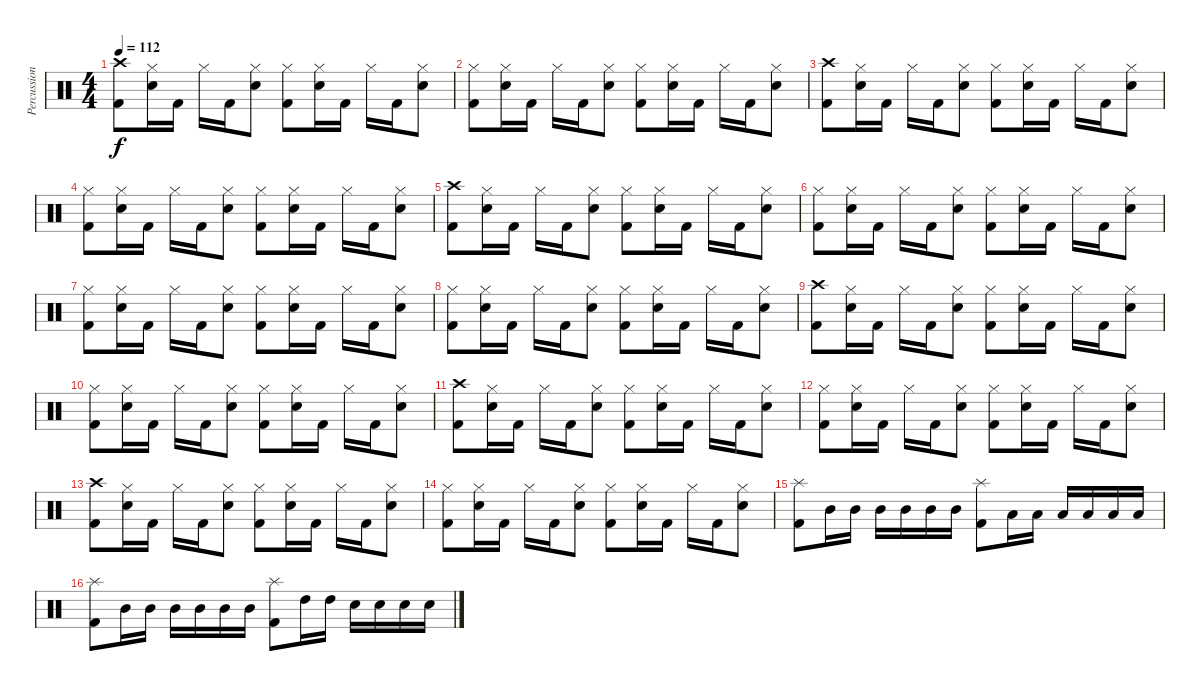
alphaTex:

\track ("Percussion" "Percussion") {instrument percussion}
\staff {score}
\articulation defaults
\ts (4 4)
\tempo 112
\clef neutral
\ks c
("Crash high (hit)" "Kick (hit) 2").8{dy f} ("Hi-Hat (closed)" "Snare (hit) 2").16 "Kick (hit) 2".16 "Hi-Hat (closed)".16 "Kick (hit) 2".16 ("Hi-Hat (closed)" "Snare (hit) 2").8 ("Hi-Hat (closed)" "Kick (hit) 2").8 ("Hi-Hat (closed)" "Snare (hit) 2").16 "Kick (hit) 2".16 "Hi-Hat (closed)".16 "Kick (hit) 2".16 ("Hi-Hat (closed)" "Snare (hit) 2").8 |
("Hi-Hat (closed)" "Kick (hit) 2").8 ("Hi-Hat (closed)" "Snare (hit) 2").16 "Kick (hit) 2".16 "Hi-Hat (closed)".16 "Kick (hit) 2".16 ("Hi-Hat (closed)" "Snare (hit) 2").8 ("Hi-Hat (closed)" "Kick (hit) 2").8 ("Hi-Hat (closed)" "Snare (hit) 2").16 "Kick (hit) 2".16 "Hi-Hat (closed)".16 "Kick (hit) 2".16 ("Hi-Hat (closed)" "Snare (hit) 2").8 |
("Crash high (hit)" "Kick (hit) 2").8 ("Hi-Hat (closed)" "Snare (hit) 2").16 "Kick (hit) 2".16 "Hi-Hat (closed)".16 "Kick (hit) 2".16 ("Hi-Hat (closed)" "Snare (hit) 2").8 ("Hi-Hat (closed)" "Kick (hit) 2").8 ("Hi-Hat (closed)" "Snare (hit) 2").16 "Kick (hit) 2".16 "Hi-Hat (closed)".16 "Kick (hit) 2".16 ("Hi-Hat (closed)" "Snare (hit) 2").8 |
("Hi-Hat (closed)" "Kick (hit) 2").8 ("Hi-Hat (closed)" "Snare (hit) 2").16 "Kick (hit) 2".16 "Hi-Hat (closed)".16 "Kick (hit) 2".16 ("Hi-Hat (closed)" "Snare (hit) 2").8 ("Hi-Hat (closed)" "Kick (hit) 2").8 ("Hi-Hat (closed)" "Snare (hit) 2").16 "Kick (hit) 2".16 "Hi-Hat (closed)".16 "Kick (hit) 2".16 ("Hi-Hat (closed)" "Snare (hit) 2").8 |
("Crash high (hit)" "Kick (hit) 2").8 ("Hi-Hat (closed)" "Snare (hit) 2").16 "Kick (hit) 2".16 "Hi-Hat (closed)".16 "Kick (hit) 2".16 ("Hi-Hat (closed)" "Snare (hit) 2").8 ("Hi-Hat (closed)" "Kick (hit) 2").8 ("Hi-Hat (closed)" "Snare (hit) 2").16 "Kick (hit) 2".16 "Hi-Hat (closed)".16 "Kick (hit) 2".16 ("Hi-Hat (closed)" "Snare (hit) 2").8 |
("Hi-Hat (closed)" "Kick (hit) 2").8 ("Hi-Hat (closed)" "Snare (hit) 2").16 "Kick (hit) 2".16 "Hi-Hat (closed)".16 "Kick (hit) 2".16 ("Hi-Hat (closed)" "Snare (hit) 2").8 ("Hi-Hat (closed)" "Kick (hit) 2").8 ("Hi-Hat (closed)" "Snare (hit) 2").16 "Kick (hit) 2".16 "Hi-Hat (closed)".16 "Kick (hit) 2".16 ("Hi-Hat (closed)" "Snare (hit) 2").8 |
("Hi-Hat (closed)" "Kick (hit) 2").8 ("Hi-Hat (closed)" "Snare (hit) 2").16 "Kick (hit) 2".16 "Hi-Hat (closed)".16 "Kick (hit) 2".16 ("Hi-Hat (closed)" "Snare (hit) 2").8 ("Hi-Hat (closed)" "Kick (hit) 2").8 ("Hi-Hat (closed)" "Snare (hit) 2").16 "Kick (hit) 2".16 "Hi-Hat (closed)".16 "Kick (hit) 2".16 ("Hi-Hat (closed)" "Snare (hit) 2").8 |
("Hi-Hat (closed)" "Kick (hit) 2").8 ("Hi-Hat (closed)" "Snare (hit) 2").16 "Kick (hit) 2".16 "Hi-Hat (closed)".16 "Kick (hit) 2".16 ("Hi-Hat (closed)" "Snare (hit) 2").8 ("Hi-Hat (closed)" "Kick (hit) 2").8 ("Hi-Hat (closed)" "Snare (hit) 2").16 "Kick (hit) 2".16 "Hi-Hat (closed)".16 "Kick (hit) 2".16 ("Hi-Hat (closed)" "Snare (hit) 2").8 |
("Crash high (hit)" "Kick (hit) 2").8 ("Hi-Hat (closed)" "Snare (hit) 2").16 "Kick (hit) 2".16 "Hi-Hat (closed)".16 "Kick (hit) 2".16 ("Hi-Hat (closed)" "Snare (hit) 2").8 ("Hi-Hat (closed)" "Kick (hit) 2").8 ("Hi-Hat (closed)" "Snare (hit) 2").16 "Kick (hit) 2".16 "Hi-Hat (closed)".16 "Kick (hit) 2".16 ("Hi-Hat (closed)" "Snare (hit) 2").8 |
("Hi-Hat (closed)" "Kick (hit) 2").8 ("Hi-Hat (closed)" "Snare (hit) 2").16 "Kick (hit) 2".16 "Hi-Hat (closed)".16 "Kick (hit) 2".16 ("Hi-Hat (closed)" "Snare (hit) 2").8 ("Hi-Hat (closed)" "Kick (hit) 2").8 ("Hi-Hat (closed)" "Snare (hit) 2").16 "Kick (hit) 2".16 "Hi-Hat (closed)".16 "Kick (hit) 2".16 ("Hi-Hat (closed)" "Snare (hit) 2").8 |
("Crash high (hit)" "Kick (hit) 2").8 ("Hi-Hat (closed)" "Snare (hit) 2").16 "Kick (hit) 2".16 "Hi-Hat (closed)".16 "Kick (hit) 2".16 ("Hi-Hat (closed)" "Snare (hit) 2").8 ("Hi-Hat (closed)" "Kick (hit) 2").8 ("Hi-Hat (closed)" "Snare (hit) 2").16 "Kick (hit) 2".16 "Hi-Hat (closed)".16 "Kick (hit) 2".16 ("Hi-Hat (closed)" "Snare (hit) 2").8 |
("Hi-Hat (closed)" "Kick (hit) 2").8 ("Hi-Hat (closed)" "Snare (hit) 2").16 "Kick (hit) 2".16 "Hi-Hat (closed)".16 "Kick (hit) 2".16 ("Hi-Hat (closed)" "Snare (hit) 2").8 ("Hi-Hat (closed)" "Kick (hit) 2").8 ("Hi-Hat (closed)" "Snare (hit) 2").16 "Kick (hit) 2".16 "Hi-Hat (closed)".16 "Kick (hit) 2".16 ("Hi-Hat (closed)" "Snare (hit) 2").8 |
("Crash high (hit)" "Kick (hit) 2").8 ("Hi-Hat (closed)" "Snare (hit) 2").16 "Kick (hit) 2".16 "Hi-Hat (closed)".16 "Kick (hit) 2".16 ("Hi-Hat (closed)" "Snare (hit) 2").8 ("Hi-Hat (closed)" "Kick (hit) 2").8 ("Hi-Hat (closed)" "Snare (hit) 2").16 "Kick (hit) 2".16 "Hi-Hat (closed)".16 "Kick (hit) 2".16 ("Hi-Hat (closed)" "Snare (hit) 2").8 |
("Hi-Hat (closed)" "Kick (hit) 2").8 ("Hi-Hat (closed)" "Snare (hit) 2").16 "Kick (hit) 2".16 "Hi-Hat (closed)".16 "Kick (hit) 2".16 ("Hi-Hat (closed)" "Snare (hit) 2").8 ("Hi-Hat (closed)" "Kick (hit) 2").8 ("Hi-Hat (closed)" "Snare (hit) 2").16 "Kick (hit) 2".16 "Hi-Hat (closed)".16 "Kick (hit) 2".16 ("Hi-Hat (closed)" "Snare (hit) 2").8 |
("Splash (hit)" "Kick (hit) 2").8 "Mid Tom (hit)".16 "Mid Tom (hit)".16 "Mid Tom (hit)".16 "Mid Tom (hit)".16 "Mid Tom (hit)".16 "Mid Tom (hit)".16 ("Splash (hit)" "Kick (hit) 2").8 "Low Tom (hit)".16 "Low Tom (hit)".16 "Low Tom (hit)".16 "Low Tom (hit)".16 "Low Tom (hit)".16 "Low Tom (hit)".16 |
("Splash (hit)" "Kick (hit) 2").8 "Mid Tom (hit)".16 "Mid Tom (hit)".16 "Mid Tom (hit)".16 "Mid Tom (hit)".16 "Mid Tom (hit)".16 "Mid Tom (hit)".16 ("Splash (hit)" "Kick (hit) 2").8 "High Tom (hit)".16 "High Tom (hit)".16 "Snare (hit) 2".16 "Snare (hit) 2".16 "Snare (hit) 2".16 "Snare (hit) 2".16
